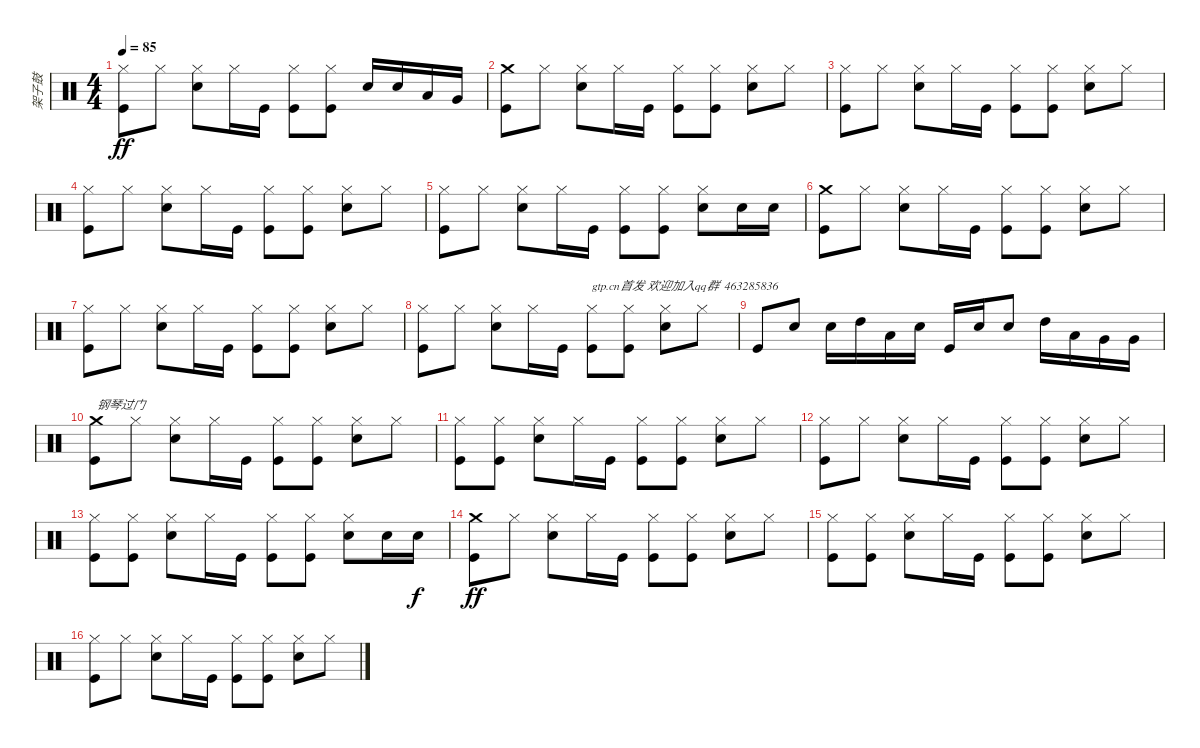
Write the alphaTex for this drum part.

\track ("架子鼓" "架子鼓") {instrument percussion}
\staff {score}
\articulation defaults
\ts (4 4)
\tempo 85
\clef neutral
\ks c
("Hi-Hat (closed)" "Kick (hit)").8{dy ff} "Hi-Hat (closed)".8 ("Hi-Hat (closed)" "Electric Snare (hit)").8 "Hi-Hat (closed)".16 "Kick (hit)".16 ("Hi-Hat (closed)" "Kick (hit)").8 ("Hi-Hat (closed)" "Kick (hit)").8 "Electric Snare (hit)".16 "Electric Snare (hit)".16 "Low Tom (hit)".16 "Very Low Tom (hit)".16 |
("Crash medium (hit)" "Kick (hit)").8 "Hi-Hat (closed)".8 ("Hi-Hat (closed)" "Electric Snare (hit)").8 "Hi-Hat (closed)".16 "Kick (hit)".16 ("Hi-Hat (closed)" "Kick (hit)").8 ("Hi-Hat (closed)" "Kick (hit)").8 ("Hi-Hat (closed)" "Electric Snare (hit)").8 "Hi-Hat (closed)".8 |
("Hi-Hat (closed)" "Kick (hit)").8 "Hi-Hat (closed)".8 ("Hi-Hat (closed)" "Electric Snare (hit)").8 "Hi-Hat (closed)".16 "Kick (hit)".16 ("Hi-Hat (closed)" "Kick (hit)").8 ("Hi-Hat (closed)" "Kick (hit)").8 ("Hi-Hat (closed)" "Electric Snare (hit)").8 "Hi-Hat (closed)".8 |
("Hi-Hat (closed)" "Kick (hit)").8 "Hi-Hat (closed)".8 ("Hi-Hat (closed)" "Electric Snare (hit)").8 "Hi-Hat (closed)".16 "Kick (hit)".16 ("Hi-Hat (closed)" "Kick (hit)").8 ("Hi-Hat (closed)" "Kick (hit)").8 ("Hi-Hat (closed)" "Electric Snare (hit)").8 "Hi-Hat (closed)".8 |
("Hi-Hat (closed)" "Kick (hit)").8 "Hi-Hat (closed)".8 ("Hi-Hat (closed)" "Electric Snare (hit)").8 "Hi-Hat (closed)".16 "Kick (hit)".16 ("Hi-Hat (closed)" "Kick (hit)").8 ("Hi-Hat (closed)" "Kick (hit)").8 ("Hi-Hat (closed)" "Electric Snare (hit)").8 "Electric Snare (hit)".16 "Electric Snare (hit)".16 |
("Crash medium (hit)" "Kick (hit)").8 "Hi-Hat (closed)".8 ("Hi-Hat (closed)" "Electric Snare (hit)").8 "Hi-Hat (closed)".16 "Kick (hit)".16 ("Hi-Hat (closed)" "Kick (hit)").8 ("Hi-Hat (closed)" "Kick (hit)").8 ("Hi-Hat (closed)" "Electric Snare (hit)").8 "Hi-Hat (closed)".8 |
("Hi-Hat (closed)" "Kick (hit)").8 "Hi-Hat (closed)".8 ("Hi-Hat (closed)" "Electric Snare (hit)").8 "Hi-Hat (closed)".16 "Kick (hit)".16 ("Hi-Hat (closed)" "Kick (hit)").8 ("Hi-Hat (closed)" "Kick (hit)").8 ("Hi-Hat (closed)" "Electric Snare (hit)").8 "Hi-Hat (closed)".8 |
("Hi-Hat (closed)" "Kick (hit)").8 "Hi-Hat (closed)".8 ("Hi-Hat (closed)" "Electric Snare (hit)").8 "Hi-Hat (closed)".16 "Kick (hit)".16 ("Hi-Hat (closed)" "Kick (hit)").8{txt "gtp.cn首发 欢迎加入qq群  463285836"} ("Hi-Hat (closed)" "Kick (hit)").8 ("Hi-Hat (closed)" "Electric Snare (hit)").8 "Hi-Hat (closed)".8 |
"Kick (hit)".8 "Electric Snare (hit)".8 "Electric Snare (hit)".16 "High Tom (hit)".16 "Low Tom (hit)".16 "Electric Snare (hit)".16 "Kick (hit)".16 "Electric Snare (hit)".16 "Electric Snare (hit)".8 "High Tom (hit)".16 "Low Tom (hit)".16 "Very Low Tom (hit)".16 "Very Low Tom (hit)".16 |
("Crash medium (hit)" "Kick (hit)").8{txt "钢琴过门"} "Hi-Hat (closed)".8 ("Hi-Hat (closed)" "Electric Snare (hit)").8 "Hi-Hat (closed)".16 "Kick (hit)".16 ("Hi-Hat (closed)" "Kick (hit)").8 ("Hi-Hat (closed)" "Kick (hit)").8 ("Hi-Hat (closed)" "Electric Snare (hit)").8 "Hi-Hat (closed)".8 |
("Hi-Hat (closed)" "Kick (hit)").8 ("Hi-Hat (closed)" "Kick (hit)").8 ("Hi-Hat (closed)" "Electric Snare (hit)").8 "Hi-Hat (closed)".16 "Kick (hit)".16 ("Hi-Hat (closed)" "Kick (hit)").8 ("Hi-Hat (closed)" "Kick (hit)").8 ("Hi-Hat (closed)" "Electric Snare (hit)").8 "Hi-Hat (closed)".8 |
("Hi-Hat (closed)" "Kick (hit)").8 "Hi-Hat (closed)".8 ("Hi-Hat (closed)" "Electric Snare (hit)").8 "Hi-Hat (closed)".16 "Kick (hit)".16 ("Hi-Hat (closed)" "Kick (hit)").8 ("Hi-Hat (closed)" "Kick (hit)").8 ("Hi-Hat (closed)" "Electric Snare (hit)").8 "Hi-Hat (closed)".8 |
("Hi-Hat (closed)" "Kick (hit)").8 ("Hi-Hat (closed)" "Kick (hit)").8 ("Hi-Hat (closed)" "Electric Snare (hit)").8 "Hi-Hat (closed)".16 "Kick (hit)".16 ("Hi-Hat (closed)" "Kick (hit)").8 ("Hi-Hat (closed)" "Kick (hit)").8 ("Hi-Hat (closed)" "Electric Snare (hit)").8 "Electric Snare (hit)".16 "Electric Snare (hit)".16{dy f} |
("Crash medium (hit)" "Kick (hit)").8{dy ff} "Hi-Hat (closed)".8 ("Hi-Hat (closed)" "Electric Snare (hit)").8 "Hi-Hat (closed)".16 "Kick (hit)".16 ("Hi-Hat (closed)" "Kick (hit)").8 ("Hi-Hat (closed)" "Kick (hit)").8 ("Hi-Hat (closed)" "Electric Snare (hit)").8 "Hi-Hat (closed)".8 |
("Hi-Hat (closed)" "Kick (hit)").8 ("Hi-Hat (closed)" "Kick (hit)").8 ("Hi-Hat (closed)" "Electric Snare (hit)").8 "Hi-Hat (closed)".16 "Kick (hit)".16 ("Hi-Hat (closed)" "Kick (hit)").8 ("Hi-Hat (closed)" "Kick (hit)").8 ("Hi-Hat (closed)" "Electric Snare (hit)").8 "Hi-Hat (closed)".8 |
("Hi-Hat (closed)" "Kick (hit)").8 "Hi-Hat (closed)".8 ("Hi-Hat (closed)" "Electric Snare (hit)").8 "Hi-Hat (closed)".16 "Kick (hit)".16 ("Hi-Hat (closed)" "Kick (hit)").8 ("Hi-Hat (closed)" "Kick (hit)").8 ("Hi-Hat (closed)" "Electric Snare (hit)").8 "Hi-Hat (closed)".8
